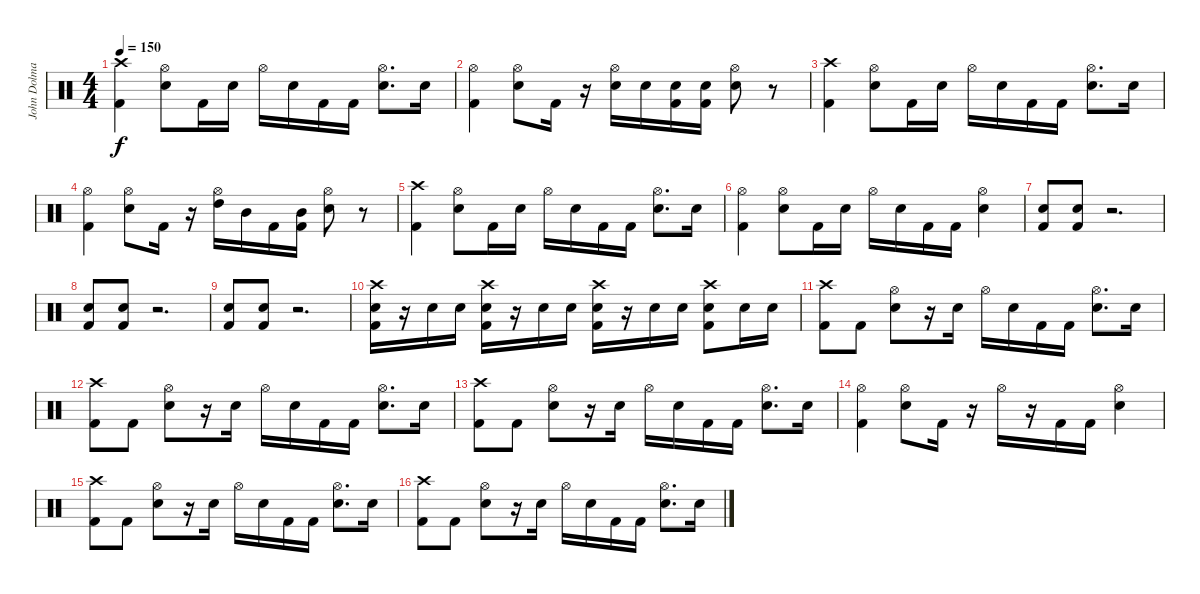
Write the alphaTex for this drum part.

\track ("John Dolmayan" "John Dolma") {instrument percussion}
\staff {score}
\articulation defaults
\ts (4 4)
\tempo 150
\clef neutral
\ks c
("Crash high (hit)" "Kick (hit) 2").4{dy f} ("Hi-Hat (open)" "Electric Snare (hit)").8 "Kick (hit) 2".16 "Electric Snare (hit)".16 "Hi-Hat (open)".16 "Electric Snare (hit)".16 "Kick (hit) 2".16 "Kick (hit) 2".16 ("Hi-Hat (open)" "Electric Snare (hit)").8{d} "Electric Snare (hit)".16 |
("Hi-Hat (open)" "Kick (hit) 2").4 ("Hi-Hat (open)" "Electric Snare (hit)").8 "Kick (hit) 2".16 r.16 ("Hi-Hat (open)" "Electric Snare (hit)").16 "Electric Snare (hit)".16 ("Electric Snare (hit)" "Kick (hit) 2").16 ("Electric Snare (hit)" "Kick (hit) 2").16 ("Hi-Hat (open)" "Electric Snare (hit)").8 r.8 |
("Crash high (hit)" "Kick (hit) 2").4 ("Hi-Hat (open)" "Electric Snare (hit)").8 "Kick (hit) 2".16 "Electric Snare (hit)".16 "Hi-Hat (open)".16 "Electric Snare (hit)".16 "Kick (hit) 2".16 "Kick (hit) 2".16 ("Hi-Hat (open)" "Electric Snare (hit)").8{d} "Electric Snare (hit)".16 |
("Hi-Hat (open)" "Kick (hit) 2").4 ("Hi-Hat (open)" "Electric Snare (hit)").8 "Kick (hit) 2".16 r.16 ("Hi-Hat (open)" "High Tom (hit)").16 "Mid Tom (hit)".16 "Kick (hit) 2".16 ("Mid Tom (hit)" "Kick (hit) 2").16 ("Hi-Hat (open)" "Electric Snare (hit)").8 r.8 |
("Crash high (hit)" "Kick (hit) 2").4 ("Hi-Hat (open)" "Electric Snare (hit)").8 "Kick (hit) 2".16 "Electric Snare (hit)".16 "Hi-Hat (open)".16 "Electric Snare (hit)".16 "Kick (hit) 2".16 "Kick (hit) 2".16 ("Hi-Hat (open)" "Electric Snare (hit)").8{d} "Electric Snare (hit)".16 |
("Hi-Hat (open)" "Kick (hit) 2").4 ("Hi-Hat (open)" "Electric Snare (hit)").8 "Kick (hit) 2".16 "Electric Snare (hit)".16 "Hi-Hat (open)".16 "Electric Snare (hit)".16 "Kick (hit) 2".16 "Kick (hit) 2".16 ("Hi-Hat (open)" "Electric Snare (hit)").4 |
("Electric Snare (hit)" "Kick (hit) 2").8 ("Electric Snare (hit)" "Kick (hit) 2").8 r.2{d} |
("Electric Snare (hit)" "Kick (hit) 2").8 ("Electric Snare (hit)" "Kick (hit) 2").8 r.2{d} |
("Electric Snare (hit)" "Kick (hit) 2").8 ("Electric Snare (hit)" "Kick (hit) 2").8 r.2{d} |
("Crash high (hit)" "Electric Snare (hit)" "Kick (hit) 2").16 r.16 "Electric Snare (hit)".16 "Electric Snare (hit)".16 ("Crash high (hit)" "Electric Snare (hit)" "Kick (hit) 2").16 r.16 "Electric Snare (hit)".16 "Electric Snare (hit)".16 ("Crash high (hit)" "Electric Snare (hit)" "Kick (hit) 2").16 r.16 "Electric Snare (hit)".16 "Electric Snare (hit)".16 ("Crash high (hit)" "Electric Snare (hit)" "Kick (hit) 2").8 "Electric Snare (hit)".16 "Electric Snare (hit)".16 |
("Crash high (hit)" "Kick (hit) 2").8 "Kick (hit) 2".8 ("Hi-Hat (open)" "Electric Snare (hit)").8 r.16 "Electric Snare (hit)".16 "Hi-Hat (open)".16 "Electric Snare (hit)".16 "Kick (hit) 2".16 "Kick (hit) 2".16 ("Hi-Hat (open)" "Electric Snare (hit)").8{d} "Electric Snare (hit)".16 |
("Crash high (hit)" "Kick (hit) 2").8 "Kick (hit) 2".8 ("Hi-Hat (open)" "Electric Snare (hit)").8 r.16 "Electric Snare (hit)".16 "Hi-Hat (open)".16 "Electric Snare (hit)".16 "Kick (hit) 2".16 "Kick (hit) 2".16 ("Hi-Hat (open)" "Electric Snare (hit)").8{d} "Electric Snare (hit)".16 |
("Crash high (hit)" "Kick (hit) 2").8 "Kick (hit) 2".8 ("Hi-Hat (open)" "Electric Snare (hit)").8 r.16 "Electric Snare (hit)".16 "Hi-Hat (open)".16 "Electric Snare (hit)".16 "Kick (hit) 2".16 "Kick (hit) 2".16 ("Hi-Hat (open)" "Electric Snare (hit)").8{d} "Electric Snare (hit)".16 |
("Hi-Hat (open)" "Kick (hit) 2").4 ("Hi-Hat (open)" "Electric Snare (hit)").8 "Kick (hit) 2".16 r.16 "Hi-Hat (open)".16 r.16 "Kick (hit) 2".16 "Kick (hit) 2".16 ("Hi-Hat (open)" "Electric Snare (hit)").4 |
("Crash high (hit)" "Kick (hit) 2").8 "Kick (hit) 2".8 ("Hi-Hat (open)" "Electric Snare (hit)").8 r.16 "Electric Snare (hit)".16 "Hi-Hat (open)".16 "Electric Snare (hit)".16 "Kick (hit) 2".16 "Kick (hit) 2".16 ("Hi-Hat (open)" "Electric Snare (hit)").8{d} "Electric Snare (hit)".16 |
("Crash high (hit)" "Kick (hit) 2").8 "Kick (hit) 2".8 ("Hi-Hat (open)" "Electric Snare (hit)").8 r.16 "Electric Snare (hit)".16 "Hi-Hat (open)".16 "Electric Snare (hit)".16 "Kick (hit) 2".16 "Kick (hit) 2".16 ("Hi-Hat (open)" "Electric Snare (hit)").8{d} "Electric Snare (hit)".16
